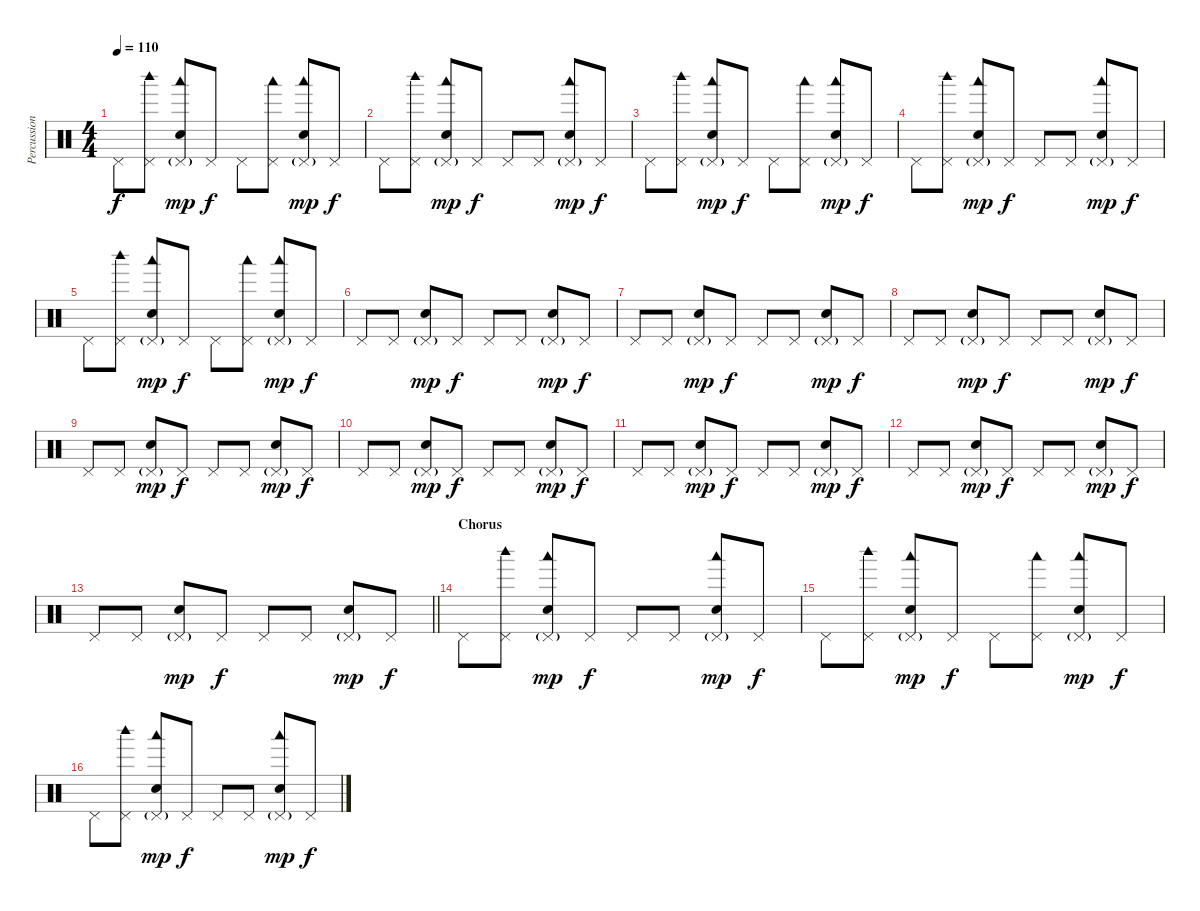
\track ("Percussion" "Percussion") {instrument percussion}
\staff {score}
\articulation defaults
\ts (4 4)
\tempo 110
\clef neutral
\ks c "Pedal Hi-Hat (hit)".8{dy f}
("Woodblock high (hit)" "Pedal Hi-Hat (hit)").8 ("Woodblock low (hit)" "Pedal Hi-Hat (hit)"{g} "Electric Snare (hit)").8{dy mp} "Pedal Hi-Hat (hit)".8{dy f} "Pedal Hi-Hat (hit)".8 ("Woodblock low (hit)" "Pedal Hi-Hat (hit)").8 ("Woodblock low (hit)" "Pedal Hi-Hat (hit)"{g} "Electric Snare (hit)").8{dy mp} "Pedal Hi-Hat (hit)".8{dy f} |
"Pedal Hi-Hat (hit)".8 ("Woodblock high (hit)" "Pedal Hi-Hat (hit)").8 ("Woodblock low (hit)" "Pedal Hi-Hat (hit)"{g} "Electric Snare (hit)").8{dy mp} "Pedal Hi-Hat (hit)".8{dy f} "Pedal Hi-Hat (hit)".8 "Pedal Hi-Hat (hit)".8 ("Woodblock low (hit)" "Pedal Hi-Hat (hit)"{g} "Electric Snare (hit)").8{dy mp} "Pedal Hi-Hat (hit)".8{dy f} |
"Pedal Hi-Hat (hit)".8 ("Woodblock high (hit)" "Pedal Hi-Hat (hit)").8 ("Woodblock low (hit)" "Pedal Hi-Hat (hit)"{g} "Electric Snare (hit)").8{dy mp} "Pedal Hi-Hat (hit)".8{dy f} "Pedal Hi-Hat (hit)".8 ("Woodblock low (hit)" "Pedal Hi-Hat (hit)").8 ("Woodblock low (hit)" "Pedal Hi-Hat (hit)"{g} "Electric Snare (hit)").8{dy mp} "Pedal Hi-Hat (hit)".8{dy f} |
"Pedal Hi-Hat (hit)".8 ("Woodblock high (hit)" "Pedal Hi-Hat (hit)").8 ("Woodblock low (hit)" "Pedal Hi-Hat (hit)"{g} "Electric Snare (hit)").8{dy mp} "Pedal Hi-Hat (hit)".8{dy f} "Pedal Hi-Hat (hit)".8 "Pedal Hi-Hat (hit)".8 ("Woodblock low (hit)" "Pedal Hi-Hat (hit)"{g} "Electric Snare (hit)").8{dy mp} "Pedal Hi-Hat (hit)".8{dy f} |
"Pedal Hi-Hat (hit)".8 ("Woodblock high (hit)" "Pedal Hi-Hat (hit)").8 ("Woodblock low (hit)" "Pedal Hi-Hat (hit)"{g} "Electric Snare (hit)").8{dy mp} "Pedal Hi-Hat (hit)".8{dy f} "Pedal Hi-Hat (hit)".8 ("Woodblock low (hit)" "Pedal Hi-Hat (hit)").8 ("Woodblock low (hit)" "Pedal Hi-Hat (hit)"{g} "Electric Snare (hit)").8{dy mp} "Pedal Hi-Hat (hit)".8{dy f} |
"Pedal Hi-Hat (hit)".8 "Pedal Hi-Hat (hit)".8 ("Pedal Hi-Hat (hit)"{g} "Electric Snare (hit)").8{dy mp} "Pedal Hi-Hat (hit)".8{dy f} "Pedal Hi-Hat (hit)".8 "Pedal Hi-Hat (hit)".8 ("Pedal Hi-Hat (hit)"{g} "Electric Snare (hit)").8{dy mp} "Pedal Hi-Hat (hit)".8{dy f} |
"Pedal Hi-Hat (hit)".8 "Pedal Hi-Hat (hit)".8 ("Pedal Hi-Hat (hit)"{g} "Electric Snare (hit)").8{dy mp} "Pedal Hi-Hat (hit)".8{dy f} "Pedal Hi-Hat (hit)".8 "Pedal Hi-Hat (hit)".8 ("Pedal Hi-Hat (hit)"{g} "Electric Snare (hit)").8{dy mp} "Pedal Hi-Hat (hit)".8{dy f} |
"Pedal Hi-Hat (hit)".8 "Pedal Hi-Hat (hit)".8 ("Pedal Hi-Hat (hit)"{g} "Electric Snare (hit)").8{dy mp} "Pedal Hi-Hat (hit)".8{dy f} "Pedal Hi-Hat (hit)".8 "Pedal Hi-Hat (hit)".8 ("Pedal Hi-Hat (hit)"{g} "Electric Snare (hit)").8{dy mp} "Pedal Hi-Hat (hit)".8{dy f} |
"Pedal Hi-Hat (hit)".8 "Pedal Hi-Hat (hit)".8 ("Pedal Hi-Hat (hit)"{g} "Electric Snare (hit)").8{dy mp} "Pedal Hi-Hat (hit)".8{dy f} "Pedal Hi-Hat (hit)".8 "Pedal Hi-Hat (hit)".8 ("Pedal Hi-Hat (hit)"{g} "Electric Snare (hit)").8{dy mp} "Pedal Hi-Hat (hit)".8{dy f} |
"Pedal Hi-Hat (hit)".8 "Pedal Hi-Hat (hit)".8 ("Pedal Hi-Hat (hit)"{g} "Electric Snare (hit)").8{dy mp} "Pedal Hi-Hat (hit)".8{dy f} "Pedal Hi-Hat (hit)".8 "Pedal Hi-Hat (hit)".8 ("Pedal Hi-Hat (hit)"{g} "Electric Snare (hit)").8{dy mp} "Pedal Hi-Hat (hit)".8{dy f} |
"Pedal Hi-Hat (hit)".8 "Pedal Hi-Hat (hit)".8 ("Pedal Hi-Hat (hit)"{g} "Electric Snare (hit)").8{dy mp} "Pedal Hi-Hat (hit)".8{dy f} "Pedal Hi-Hat (hit)".8 "Pedal Hi-Hat (hit)".8 ("Pedal Hi-Hat (hit)"{g} "Electric Snare (hit)").8{dy mp} "Pedal Hi-Hat (hit)".8{dy f} |
"Pedal Hi-Hat (hit)".8 "Pedal Hi-Hat (hit)".8 ("Pedal Hi-Hat (hit)"{g} "Electric Snare (hit)").8{dy mp} "Pedal Hi-Hat (hit)".8{dy f} "Pedal Hi-Hat (hit)".8 "Pedal Hi-Hat (hit)".8 ("Pedal Hi-Hat (hit)"{g} "Electric Snare (hit)").8{dy mp} "Pedal Hi-Hat (hit)".8{dy f} |
\barLineRight lightlight "Pedal Hi-Hat (hit)".8 "Pedal Hi-Hat (hit)".8
("Pedal Hi-Hat (hit)"{g} "Electric Snare (hit)").8{dy mp} "Pedal Hi-Hat (hit)".8{dy f} "Pedal Hi-Hat (hit)".8 "Pedal Hi-Hat (hit)".8 ("Pedal Hi-Hat (hit)"{g} "Electric Snare (hit)").8{dy mp} "Pedal Hi-Hat (hit)".8{dy f} |
\section ("" "Chorus")
"Pedal Hi-Hat (hit)".8 ("Woodblock high (hit)" "Pedal Hi-Hat (hit)").8 ("Woodblock low (hit)" "Pedal Hi-Hat (hit)"{g} "Electric Snare (hit)").8{dy mp} "Pedal Hi-Hat (hit)".8{dy f} "Pedal Hi-Hat (hit)".8 "Pedal Hi-Hat (hit)".8 ("Woodblock low (hit)" "Pedal Hi-Hat (hit)"{g} "Electric Snare (hit)").8{dy mp} "Pedal Hi-Hat (hit)".8{dy f} |
"Pedal Hi-Hat (hit)".8 ("Woodblock high (hit)" "Pedal Hi-Hat (hit)").8 ("Woodblock low (hit)" "Pedal Hi-Hat (hit)"{g} "Electric Snare (hit)").8{dy mp} "Pedal Hi-Hat (hit)".8{dy f} "Pedal Hi-Hat (hit)".8 ("Woodblock low (hit)" "Pedal Hi-Hat (hit)").8 ("Woodblock low (hit)" "Pedal Hi-Hat (hit)"{g} "Electric Snare (hit)").8{dy mp} "Pedal Hi-Hat (hit)".8{dy f} |
"Pedal Hi-Hat (hit)".8 ("Woodblock high (hit)" "Pedal Hi-Hat (hit)").8 ("Woodblock low (hit)" "Pedal Hi-Hat (hit)"{g} "Electric Snare (hit)").8{dy mp} "Pedal Hi-Hat (hit)".8{dy f} "Pedal Hi-Hat (hit)".8 "Pedal Hi-Hat (hit)".8 ("Woodblock low (hit)" "Pedal Hi-Hat (hit)"{g} "Electric Snare (hit)").8{dy mp} "Pedal Hi-Hat (hit)".8{dy f}
